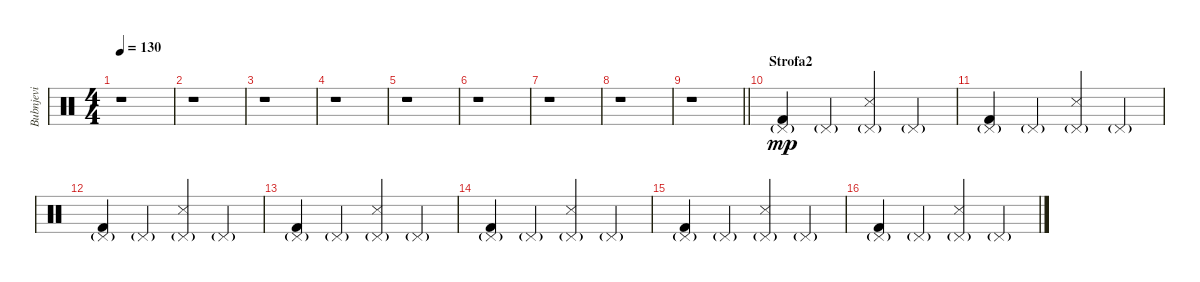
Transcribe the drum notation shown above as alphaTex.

\track ("Bubnjevi" "Bubnjevi") {instrument percussion}
\staff {score}
\articulation defaults
\ts (4 4)
\tempo 130
\clef neutral
\ks c
r.1{dy f} |
r.1 |
r.1 |
r.1 |
r.1 |
r.1 |
r.1 |
r.1 |
\barLineRight lightlight
r.1 |
\section ("" "Strofa2")
("Pedal Hi-Hat (hit)"{g} "Kick (hit) 2").4{dy mp} "Pedal Hi-Hat (hit)"{g}.4 ("Pedal Hi-Hat (hit)"{g} "Snare (side stick) 3").4 "Pedal Hi-Hat (hit)"{g}.4 |
("Pedal Hi-Hat (hit)"{g} "Kick (hit) 2").4 "Pedal Hi-Hat (hit)"{g}.4 ("Pedal Hi-Hat (hit)"{g} "Snare (side stick) 3").4 "Pedal Hi-Hat (hit)"{g}.4 |
("Pedal Hi-Hat (hit)"{g} "Kick (hit) 2").4 "Pedal Hi-Hat (hit)"{g}.4 ("Pedal Hi-Hat (hit)"{g} "Snare (side stick) 3").4 "Pedal Hi-Hat (hit)"{g}.4 |
("Pedal Hi-Hat (hit)"{g} "Kick (hit) 2").4 "Pedal Hi-Hat (hit)"{g}.4 ("Pedal Hi-Hat (hit)"{g} "Snare (side stick) 3").4 "Pedal Hi-Hat (hit)"{g}.4 |
("Pedal Hi-Hat (hit)"{g} "Kick (hit) 2").4 "Pedal Hi-Hat (hit)"{g}.4 ("Pedal Hi-Hat (hit)"{g} "Snare (side stick) 3").4 "Pedal Hi-Hat (hit)"{g}.4 |
("Pedal Hi-Hat (hit)"{g} "Kick (hit) 2").4 "Pedal Hi-Hat (hit)"{g}.4 ("Pedal Hi-Hat (hit)"{g} "Snare (side stick) 3").4 "Pedal Hi-Hat (hit)"{g}.4 |
("Pedal Hi-Hat (hit)"{g} "Kick (hit) 2").4 "Pedal Hi-Hat (hit)"{g}.4 ("Pedal Hi-Hat (hit)"{g} "Snare (side stick) 3").4 "Pedal Hi-Hat (hit)"{g}.4
